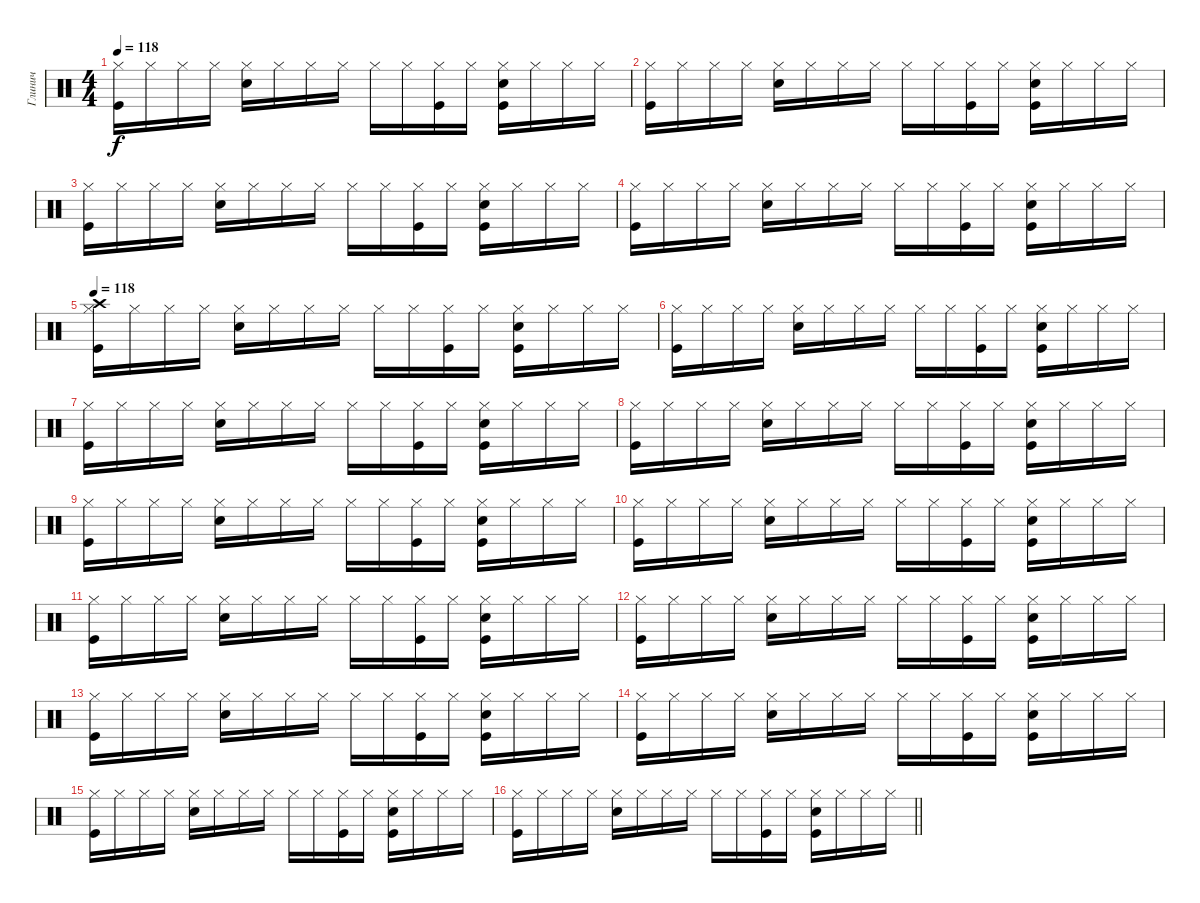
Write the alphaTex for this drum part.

\track ("Глинич" "Глинич") {instrument percussion}
\staff {score}
\articulation defaults
\ts (4 4)
\tempo 118
\clef neutral
\ks c
("Hi-Hat (closed)" "Kick (hit)").16{dy f} "Hi-Hat (closed)".16 "Hi-Hat (closed)".16 "Hi-Hat (closed)".16 ("Hi-Hat (closed)" "Snare (hit) 2").16 "Hi-Hat (closed)".16 "Hi-Hat (closed)".16 "Hi-Hat (closed)".16 "Hi-Hat (closed)".16 "Hi-Hat (closed)".16 ("Hi-Hat (closed)" "Kick (hit)").16 "Hi-Hat (closed)".16 ("Hi-Hat (closed)" "Snare (hit) 2" "Kick (hit)").16 "Hi-Hat (closed)".16 "Hi-Hat (closed)".16 "Hi-Hat (closed)".16 |
("Hi-Hat (closed)" "Kick (hit)").16 "Hi-Hat (closed)".16 "Hi-Hat (closed)".16 "Hi-Hat (closed)".16 ("Hi-Hat (closed)" "Snare (hit) 2").16 "Hi-Hat (closed)".16 "Hi-Hat (closed)".16 "Hi-Hat (closed)".16 "Hi-Hat (closed)".16 "Hi-Hat (closed)".16 ("Hi-Hat (closed)" "Kick (hit)").16 "Hi-Hat (closed)".16 ("Hi-Hat (closed)" "Snare (hit) 2" "Kick (hit)").16 "Hi-Hat (closed)".16 "Hi-Hat (closed)".16 "Hi-Hat (closed)".16 |
("Hi-Hat (closed)" "Kick (hit)").16 "Hi-Hat (closed)".16 "Hi-Hat (closed)".16 "Hi-Hat (closed)".16 ("Hi-Hat (closed)" "Snare (hit) 2").16 "Hi-Hat (closed)".16 "Hi-Hat (closed)".16 "Hi-Hat (closed)".16 "Hi-Hat (closed)".16 "Hi-Hat (closed)".16 ("Hi-Hat (closed)" "Kick (hit)").16 "Hi-Hat (closed)".16 ("Hi-Hat (closed)" "Snare (hit) 2" "Kick (hit)").16 "Hi-Hat (closed)".16 "Hi-Hat (closed)".16 "Hi-Hat (closed)".16 |
("Hi-Hat (closed)" "Kick (hit)").16 "Hi-Hat (closed)".16 "Hi-Hat (closed)".16 "Hi-Hat (closed)".16 ("Hi-Hat (closed)" "Snare (hit) 2").16 "Hi-Hat (closed)".16 "Hi-Hat (closed)".16 "Hi-Hat (closed)".16 "Hi-Hat (closed)".16 "Hi-Hat (closed)".16 ("Hi-Hat (closed)" "Kick (hit)").16 "Hi-Hat (closed)".16 ("Hi-Hat (closed)" "Snare (hit) 2" "Kick (hit)").16 "Hi-Hat (closed)".16 "Hi-Hat (closed)".16 "Hi-Hat (closed)".16 |
\tempo 118
("Hi-Hat (closed)" "Kick (hit)" "Crash high (hit)").16 "Hi-Hat (closed)".16 "Hi-Hat (closed)".16 "Hi-Hat (closed)".16 ("Hi-Hat (closed)" "Snare (hit) 2").16 "Hi-Hat (closed)".16 "Hi-Hat (closed)".16 "Hi-Hat (closed)".16 "Hi-Hat (closed)".16 "Hi-Hat (closed)".16 ("Hi-Hat (closed)" "Kick (hit)").16 "Hi-Hat (closed)".16 ("Hi-Hat (closed)" "Snare (hit) 2" "Kick (hit)").16 "Hi-Hat (closed)".16 "Hi-Hat (closed)".16 "Hi-Hat (closed)".16 |
("Hi-Hat (closed)" "Kick (hit)").16 "Hi-Hat (closed)".16 "Hi-Hat (closed)".16 "Hi-Hat (closed)".16 ("Hi-Hat (closed)" "Snare (hit) 2").16 "Hi-Hat (closed)".16 "Hi-Hat (closed)".16 "Hi-Hat (closed)".16 "Hi-Hat (closed)".16 "Hi-Hat (closed)".16 ("Hi-Hat (closed)" "Kick (hit)").16 "Hi-Hat (closed)".16 ("Hi-Hat (closed)" "Snare (hit) 2" "Kick (hit)").16 "Hi-Hat (closed)".16 "Hi-Hat (closed)".16 "Hi-Hat (closed)".16 |
("Hi-Hat (closed)" "Kick (hit)").16 "Hi-Hat (closed)".16 "Hi-Hat (closed)".16 "Hi-Hat (closed)".16 ("Hi-Hat (closed)" "Snare (hit) 2").16 "Hi-Hat (closed)".16 "Hi-Hat (closed)".16 "Hi-Hat (closed)".16 "Hi-Hat (closed)".16 "Hi-Hat (closed)".16 ("Hi-Hat (closed)" "Kick (hit)").16 "Hi-Hat (closed)".16 ("Hi-Hat (closed)" "Snare (hit) 2" "Kick (hit)").16 "Hi-Hat (closed)".16 "Hi-Hat (closed)".16 "Hi-Hat (closed)".16 |
("Hi-Hat (closed)" "Kick (hit)").16 "Hi-Hat (closed)".16 "Hi-Hat (closed)".16 "Hi-Hat (closed)".16 ("Hi-Hat (closed)" "Snare (hit) 2").16 "Hi-Hat (closed)".16 "Hi-Hat (closed)".16 "Hi-Hat (closed)".16 "Hi-Hat (closed)".16 "Hi-Hat (closed)".16 ("Hi-Hat (closed)" "Kick (hit)").16 "Hi-Hat (closed)".16 ("Hi-Hat (closed)" "Snare (hit) 2" "Kick (hit)").16 "Hi-Hat (closed)".16 "Hi-Hat (closed)".16 "Hi-Hat (closed)".16 |
("Hi-Hat (closed)" "Kick (hit)").16 "Hi-Hat (closed)".16 "Hi-Hat (closed)".16 "Hi-Hat (closed)".16 ("Hi-Hat (closed)" "Snare (hit) 2").16 "Hi-Hat (closed)".16 "Hi-Hat (closed)".16 "Hi-Hat (closed)".16 "Hi-Hat (closed)".16 "Hi-Hat (closed)".16 ("Hi-Hat (closed)" "Kick (hit)").16 "Hi-Hat (closed)".16 ("Hi-Hat (closed)" "Snare (hit) 2" "Kick (hit)").16 "Hi-Hat (closed)".16 "Hi-Hat (closed)".16 "Hi-Hat (closed)".16 |
("Hi-Hat (closed)" "Kick (hit)").16 "Hi-Hat (closed)".16 "Hi-Hat (closed)".16 "Hi-Hat (closed)".16 ("Hi-Hat (closed)" "Snare (hit) 2").16 "Hi-Hat (closed)".16 "Hi-Hat (closed)".16 "Hi-Hat (closed)".16 "Hi-Hat (closed)".16 "Hi-Hat (closed)".16 ("Hi-Hat (closed)" "Kick (hit)").16 "Hi-Hat (closed)".16 ("Hi-Hat (closed)" "Snare (hit) 2" "Kick (hit)").16 "Hi-Hat (closed)".16 "Hi-Hat (closed)".16 "Hi-Hat (closed)".16 |
("Hi-Hat (closed)" "Kick (hit)").16 "Hi-Hat (closed)".16 "Hi-Hat (closed)".16 "Hi-Hat (closed)".16 ("Hi-Hat (closed)" "Snare (hit) 2").16 "Hi-Hat (closed)".16 "Hi-Hat (closed)".16 "Hi-Hat (closed)".16 "Hi-Hat (closed)".16 "Hi-Hat (closed)".16 ("Hi-Hat (closed)" "Kick (hit)").16 "Hi-Hat (closed)".16 ("Hi-Hat (closed)" "Snare (hit) 2" "Kick (hit)").16 "Hi-Hat (closed)".16 "Hi-Hat (closed)".16 "Hi-Hat (closed)".16 |
("Hi-Hat (closed)" "Kick (hit)").16 "Hi-Hat (closed)".16 "Hi-Hat (closed)".16 "Hi-Hat (closed)".16 ("Hi-Hat (closed)" "Snare (hit) 2").16 "Hi-Hat (closed)".16 "Hi-Hat (closed)".16 "Hi-Hat (closed)".16 "Hi-Hat (closed)".16 "Hi-Hat (closed)".16 ("Hi-Hat (closed)" "Kick (hit)").16 "Hi-Hat (closed)".16 ("Hi-Hat (closed)" "Snare (hit) 2" "Kick (hit)").16 "Hi-Hat (closed)".16 "Hi-Hat (closed)".16 "Hi-Hat (closed)".16 |
("Hi-Hat (closed)" "Kick (hit)").16 "Hi-Hat (closed)".16 "Hi-Hat (closed)".16 "Hi-Hat (closed)".16 ("Hi-Hat (closed)" "Snare (hit) 2").16 "Hi-Hat (closed)".16 "Hi-Hat (closed)".16 "Hi-Hat (closed)".16 "Hi-Hat (closed)".16 "Hi-Hat (closed)".16 ("Hi-Hat (closed)" "Kick (hit)").16 "Hi-Hat (closed)".16 ("Hi-Hat (closed)" "Snare (hit) 2" "Kick (hit)").16 "Hi-Hat (closed)".16 "Hi-Hat (closed)".16 "Hi-Hat (closed)".16 |
("Hi-Hat (closed)" "Kick (hit)").16 "Hi-Hat (closed)".16 "Hi-Hat (closed)".16 "Hi-Hat (closed)".16 ("Hi-Hat (closed)" "Snare (hit) 2").16 "Hi-Hat (closed)".16 "Hi-Hat (closed)".16 "Hi-Hat (closed)".16 "Hi-Hat (closed)".16 "Hi-Hat (closed)".16 ("Hi-Hat (closed)" "Kick (hit)").16 "Hi-Hat (closed)".16 ("Hi-Hat (closed)" "Snare (hit) 2" "Kick (hit)").16 "Hi-Hat (closed)".16 "Hi-Hat (closed)".16 "Hi-Hat (closed)".16 |
("Hi-Hat (closed)" "Kick (hit)").16 "Hi-Hat (closed)".16 "Hi-Hat (closed)".16 "Hi-Hat (closed)".16 ("Hi-Hat (closed)" "Snare (hit) 2").16 "Hi-Hat (closed)".16 "Hi-Hat (closed)".16 "Hi-Hat (closed)".16 "Hi-Hat (closed)".16 "Hi-Hat (closed)".16 ("Hi-Hat (closed)" "Kick (hit)").16 "Hi-Hat (closed)".16 ("Hi-Hat (closed)" "Snare (hit) 2" "Kick (hit)").16 "Hi-Hat (closed)".16 "Hi-Hat (closed)".16 "Hi-Hat (closed)".16 |
\barLineRight lightlight
("Hi-Hat (closed)" "Kick (hit)").16 "Hi-Hat (closed)".16 "Hi-Hat (closed)".16 "Hi-Hat (closed)".16 ("Hi-Hat (closed)" "Snare (hit) 2").16 "Hi-Hat (closed)".16 "Hi-Hat (closed)".16 "Hi-Hat (closed)".16 "Hi-Hat (closed)".16 "Hi-Hat (closed)".16 ("Hi-Hat (closed)" "Kick (hit)").16 "Hi-Hat (closed)".16 ("Hi-Hat (closed)" "Snare (hit) 2" "Kick (hit)").16 "Hi-Hat (closed)".16 "Hi-Hat (closed)".16 "Hi-Hat (closed)".16
